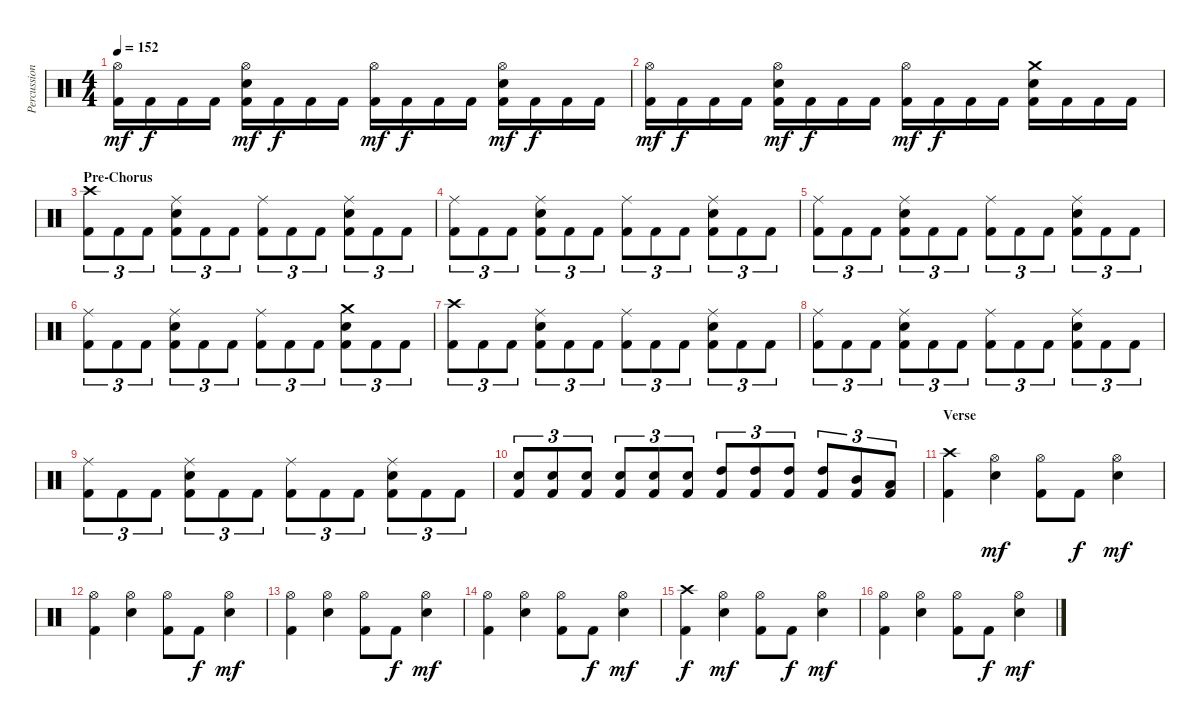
\track ("Percussion" "Percussion") {instrument percussion}
\staff {score}
\articulation defaults
\ts (4 4)
\tempo 152
\clef neutral
\ks c
("Hi-Hat (open)" "Kick (hit) 2").16{dy mf} "Kick (hit) 2".16{dy f} "Kick (hit) 2".16 "Kick (hit) 2".16 ("Hi-Hat (open)" "Electric Snare (hit)" "Kick (hit) 2").16{dy mf} "Kick (hit) 2".16{dy f} "Kick (hit) 2".16 "Kick (hit) 2".16 ("Hi-Hat (open)" "Kick (hit) 2").16{dy mf} "Kick (hit) 2".16{dy f} "Kick (hit) 2".16 "Kick (hit) 2".16 ("Hi-Hat (open)" "Electric Snare (hit)" "Kick (hit) 2").16{dy mf} "Kick (hit) 2".16{dy f} "Kick (hit) 2".16 "Kick (hit) 2".16 |
("Hi-Hat (open)" "Kick (hit) 2").16{dy mf} "Kick (hit) 2".16{dy f} "Kick (hit) 2".16 "Kick (hit) 2".16 ("Hi-Hat (open)" "Electric Snare (hit)" "Kick (hit) 2").16{dy mf} "Kick (hit) 2".16{dy f} "Kick (hit) 2".16 "Kick (hit) 2".16 ("Hi-Hat (open)" "Kick (hit) 2").16{dy mf} "Kick (hit) 2".16{dy f} "Kick (hit) 2".16 "Kick (hit) 2".16 ("Crash medium (hit)" "Electric Snare (hit)" "Kick (hit) 2").16 "Kick (hit) 2".16 "Kick (hit) 2".16 "Kick (hit) 2".16 |
\section ("" "Pre-Chorus")
("Crash high (hit)" "Kick (hit) 2").8{tu (3 2)} "Kick (hit) 2".8{tu (3 2)} "Kick (hit) 2".8{tu (3 2)} ("Ride (middle)" "Electric Snare (hit)" "Kick (hit) 2").8{tu (3 2)} "Kick (hit) 2".8{tu (3 2)} "Kick (hit) 2".8{tu (3 2)} ("Ride (middle)" "Kick (hit) 2").8{tu (3 2)} "Kick (hit) 2".8{tu (3 2)} "Kick (hit) 2".8{tu (3 2)} ("Ride (middle)" "Electric Snare (hit)" "Kick (hit) 2").8{tu (3 2)} "Kick (hit) 2".8{tu (3 2)} "Kick (hit) 2".8{tu (3 2)} |
("Ride (middle)" "Kick (hit) 2").8{tu (3 2)} "Kick (hit) 2".8{tu (3 2)} "Kick (hit) 2".8{tu (3 2)} ("Ride (middle)" "Electric Snare (hit)" "Kick (hit) 2").8{tu (3 2)} "Kick (hit) 2".8{tu (3 2)} "Kick (hit) 2".8{tu (3 2)} ("Ride (middle)" "Kick (hit) 2").8{tu (3 2)} "Kick (hit) 2".8{tu (3 2)} "Kick (hit) 2".8{tu (3 2)} ("Ride (middle)" "Electric Snare (hit)" "Kick (hit) 2").8{tu (3 2)} "Kick (hit) 2".8{tu (3 2)} "Kick (hit) 2".8{tu (3 2)} |
("Ride (middle)" "Kick (hit) 2").8{tu (3 2)} "Kick (hit) 2".8{tu (3 2)} "Kick (hit) 2".8{tu (3 2)} ("Ride (middle)" "Electric Snare (hit)" "Kick (hit) 2").8{tu (3 2)} "Kick (hit) 2".8{tu (3 2)} "Kick (hit) 2".8{tu (3 2)} ("Ride (middle)" "Kick (hit) 2").8{tu (3 2)} "Kick (hit) 2".8{tu (3 2)} "Kick (hit) 2".8{tu (3 2)} ("Ride (middle)" "Electric Snare (hit)" "Kick (hit) 2").8{tu (3 2)} "Kick (hit) 2".8{tu (3 2)} "Kick (hit) 2".8{tu (3 2)} |
("Ride (middle)" "Kick (hit) 2").8{tu (3 2)} "Kick (hit) 2".8{tu (3 2)} "Kick (hit) 2".8{tu (3 2)} ("Ride (middle)" "Electric Snare (hit)" "Kick (hit) 2").8{tu (3 2)} "Kick (hit) 2".8{tu (3 2)} "Kick (hit) 2".8{tu (3 2)} ("Ride (middle)" "Kick (hit) 2").8{tu (3 2)} "Kick (hit) 2".8{tu (3 2)} "Kick (hit) 2".8{tu (3 2)} ("Crash medium (hit)" "Electric Snare (hit)" "Kick (hit) 2").8{tu (3 2)} "Kick (hit) 2".8{tu (3 2)} "Kick (hit) 2".8{tu (3 2)} |
("Crash high (hit)" "Kick (hit) 2").8{tu (3 2)} "Kick (hit) 2".8{tu (3 2)} "Kick (hit) 2".8{tu (3 2)} ("Ride (middle)" "Electric Snare (hit)" "Kick (hit) 2").8{tu (3 2)} "Kick (hit) 2".8{tu (3 2)} "Kick (hit) 2".8{tu (3 2)} ("Ride (middle)" "Kick (hit) 2").8{tu (3 2)} "Kick (hit) 2".8{tu (3 2)} "Kick (hit) 2".8{tu (3 2)} ("Ride (middle)" "Electric Snare (hit)" "Kick (hit) 2").8{tu (3 2)} "Kick (hit) 2".8{tu (3 2)} "Kick (hit) 2".8{tu (3 2)} |
("Ride (middle)" "Kick (hit) 2").8{tu (3 2)} "Kick (hit) 2".8{tu (3 2)} "Kick (hit) 2".8{tu (3 2)} ("Ride (middle)" "Electric Snare (hit)" "Kick (hit) 2").8{tu (3 2)} "Kick (hit) 2".8{tu (3 2)} "Kick (hit) 2".8{tu (3 2)} ("Ride (middle)" "Kick (hit) 2").8{tu (3 2)} "Kick (hit) 2".8{tu (3 2)} "Kick (hit) 2".8{tu (3 2)} ("Ride (middle)" "Electric Snare (hit)" "Kick (hit) 2").8{tu (3 2)} "Kick (hit) 2".8{tu (3 2)} "Kick (hit) 2".8{tu (3 2)} |
("Ride (middle)" "Kick (hit) 2").8{tu (3 2)} "Kick (hit) 2".8{tu (3 2)} "Kick (hit) 2".8{tu (3 2)} ("Ride (middle)" "Electric Snare (hit)" "Kick (hit) 2").8{tu (3 2)} "Kick (hit) 2".8{tu (3 2)} "Kick (hit) 2".8{tu (3 2)} ("Ride (middle)" "Kick (hit) 2").8{tu (3 2)} "Kick (hit) 2".8{tu (3 2)} "Kick (hit) 2".8{tu (3 2)} ("Ride (middle)" "Electric Snare (hit)" "Kick (hit) 2").8{tu (3 2)} "Kick (hit) 2".8{tu (3 2)} "Kick (hit) 2".8{tu (3 2)} |
("Electric Snare (hit)" "Kick (hit) 2").8{tu (3 2)} ("Electric Snare (hit)" "Kick (hit) 2").8{tu (3 2)} ("Electric Snare (hit)" "Kick (hit) 2").8{tu (3 2)} ("Electric Snare (hit)" "Kick (hit) 2").8{tu (3 2)} ("Electric Snare (hit)" "Kick (hit) 2").8{tu (3 2)} ("Electric Snare (hit)" "Kick (hit) 2").8{tu (3 2)} ("High Tom (hit)" "Kick (hit) 2").8{tu (3 2)} ("High Tom (hit)" "Kick (hit) 2").8{tu (3 2)} ("High Tom (hit)" "Kick (hit) 2").8{tu (3 2)} ("High Tom (hit)" "Kick (hit) 2").8{tu (3 2)} ("Mid Tom (hit)" "Kick (hit) 2").8{tu (3 2)} ("Low Tom (hit)" "Kick (hit) 2").8{tu (3 2)} |
\section ("" "Verse")
("Crash high (hit)" "Kick (hit) 2").4 ("Hi-Hat (open)" "Electric Snare (hit)").4{dy mf} ("Hi-Hat (open)" "Kick (hit) 2").8 "Kick (hit) 2".8{dy f} ("Hi-Hat (open)" "Electric Snare (hit)").4{dy mf} |
("Hi-Hat (open)" "Kick (hit) 2").4 ("Hi-Hat (open)" "Electric Snare (hit)").4 ("Hi-Hat (open)" "Kick (hit) 2").8 "Kick (hit) 2".8{dy f} ("Hi-Hat (open)" "Electric Snare (hit)").4{dy mf} |
("Hi-Hat (open)" "Kick (hit) 2").4 ("Hi-Hat (open)" "Electric Snare (hit)").4 ("Hi-Hat (open)" "Kick (hit) 2").8 "Kick (hit) 2".8{dy f} ("Hi-Hat (open)" "Electric Snare (hit)").4{dy mf} |
("Hi-Hat (open)" "Kick (hit) 2").4 ("Hi-Hat (open)" "Electric Snare (hit)").4 ("Hi-Hat (open)" "Kick (hit) 2").8 "Kick (hit) 2".8{dy f} ("Hi-Hat (open)" "Electric Snare (hit)").4{dy mf} |
("Crash high (hit)" "Kick (hit) 2").4{dy f} ("Hi-Hat (open)" "Electric Snare (hit)").4{dy mf} ("Hi-Hat (open)" "Kick (hit) 2").8 "Kick (hit) 2".8{dy f} ("Hi-Hat (open)" "Electric Snare (hit)").4{dy mf} |
("Hi-Hat (open)" "Kick (hit) 2").4 ("Hi-Hat (open)" "Electric Snare (hit)").4 ("Hi-Hat (open)" "Kick (hit) 2").8 "Kick (hit) 2".8{dy f} ("Hi-Hat (open)" "Electric Snare (hit)").4{dy mf}
